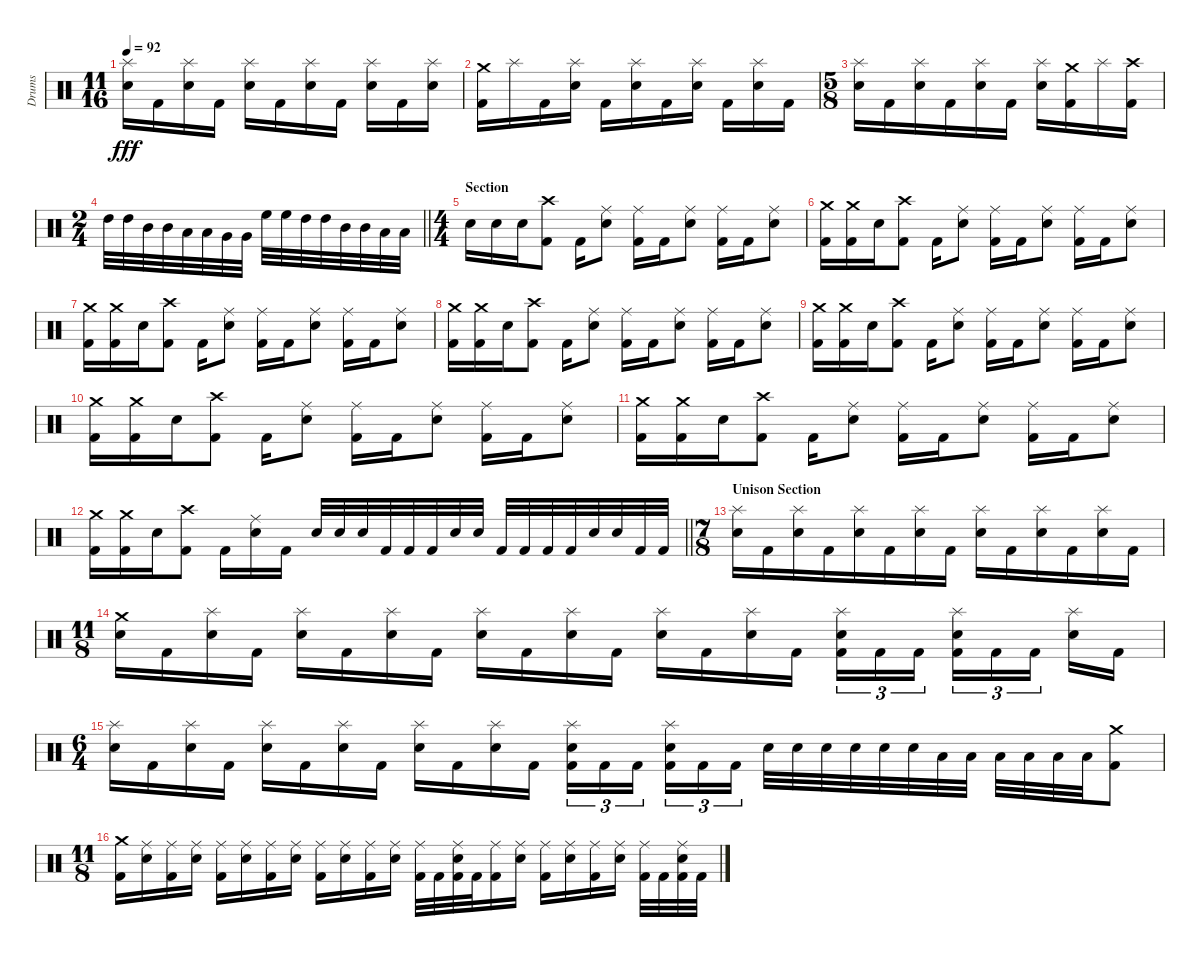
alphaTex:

\track ("Drums" "Drums") {instrument percussion}
\staff {score}
\articulation defaults
\ts (11 16)
\tempo 92
\clef neutral
\ks c
("Splash (hit)" "Snare (hit) 2").16{dy fff} "Kick (hit) 2".16 ("Splash (hit)" "Snare (hit) 2").16 "Kick (hit) 2".16 ("Splash (hit)" "Snare (hit) 2").16 "Kick (hit) 2".16 ("Splash (hit)" "Snare (hit) 2").16 "Kick (hit) 2".16 ("Splash (hit)" "Snare (hit) 2").16 "Kick (hit) 2".16 ("Splash (hit)" "Snare (hit) 2").16 |
("Crash medium (hit)" "Kick (hit) 2").16 "Splash (hit)".16 "Kick (hit) 2".16 ("Splash (hit)" "Snare (hit) 2").16 "Kick (hit) 2".16 ("Splash (hit)" "Snare (hit) 2").16 "Kick (hit) 2".16 ("Splash (hit)" "Snare (hit) 2").16 "Kick (hit) 2".16 ("Splash (hit)" "Snare (hit) 2").16 "Kick (hit) 2".16 |
\ts (5 8)
("Splash (hit)" "Snare (hit) 2").16 "Kick (hit) 2".16 ("Splash (hit)" "Snare (hit) 2").16 "Kick (hit) 2".16 ("Splash (hit)" "Snare (hit) 2").16 "Kick (hit) 2".16 ("Splash (hit)" "Snare (hit) 2").16 ("Crash medium (hit)" "Kick (hit) 2").16 "Splash (hit)".16 ("Crash high (hit)" "Kick (hit) 2").16 |
\ts (2 4)
\barLineRight lightlight "High Tom (hit)".32 "High Tom (hit)".32 "Mid Tom (hit)".32 "Mid Tom (hit)".32 "Low Tom (hit)".32 "Low Tom (hit)".32 "Very Low Tom (hit)".32 "Very Low Tom (hit)".32 "High Floor Tom (hit)".32 "High Floor Tom (hit)".32 "High Tom (hit)".32 "High Tom (hit)".32 "Mid Tom (hit)".32 "Mid Tom (hit)".32 "Low Tom (hit)".32 "Low Tom (hit)".32
|
\ts (4 4)
\section ("" "Section")
"Snare (hit) 2".16 "Snare (hit) 2".16 "Snare (hit) 2".16 ("Crash high (hit)" "Kick (hit) 2").8 "Kick (hit) 2".16 ("Ride (middle)" "Snare (hit) 2").8 ("Ride (middle)" "Kick (hit) 2").16 "Kick (hit) 2".16 ("Ride (middle)" "Snare (hit) 2").8 ("Ride (middle)" "Kick (hit) 2").16 "Kick (hit) 2".16 ("Ride (middle)" "Snare (hit) 2").8 |
("Crash medium (hit)" "Kick (hit) 2").16 ("Crash medium (hit)" "Kick (hit) 2").16 "Snare (hit) 2".16 ("Crash high (hit)" "Kick (hit) 2").8 "Kick (hit) 2".16 ("Ride (middle)" "Snare (hit) 2").8 ("Ride (middle)" "Kick (hit) 2").16 "Kick (hit) 2".16 ("Ride (middle)" "Snare (hit) 2").8 ("Ride (middle)" "Kick (hit) 2").16 "Kick (hit) 2".16 ("Ride (middle)" "Snare (hit) 2").8 |
("Crash medium (hit)" "Kick (hit) 2").16 ("Crash medium (hit)" "Kick (hit) 2").16 "Snare (hit) 2".16 ("Crash high (hit)" "Kick (hit) 2").8 "Kick (hit) 2".16 ("Ride (middle)" "Snare (hit) 2").8 ("Ride (middle)" "Kick (hit) 2").16 "Kick (hit) 2".16 ("Ride (middle)" "Snare (hit) 2").8 ("Ride (middle)" "Kick (hit) 2").16 "Kick (hit) 2".16 ("Ride (middle)" "Snare (hit) 2").8 |
("Crash medium (hit)" "Kick (hit) 2").16 ("Crash medium (hit)" "Kick (hit) 2").16 "Snare (hit) 2".16 ("Crash high (hit)" "Kick (hit) 2").8 "Kick (hit) 2".16 ("Ride (middle)" "Snare (hit) 2").8 ("Ride (middle)" "Kick (hit) 2").16 "Kick (hit) 2".16 ("Ride (middle)" "Snare (hit) 2").8 ("Ride (middle)" "Kick (hit) 2").16 "Kick (hit) 2".16 ("Ride (middle)" "Snare (hit) 2").8 |
("Crash medium (hit)" "Kick (hit) 2").16 ("Crash medium (hit)" "Kick (hit) 2").16 "Snare (hit) 2".16 ("Crash high (hit)" "Kick (hit) 2").8 "Kick (hit) 2".16 ("Ride (middle)" "Snare (hit) 2").8 ("Ride (middle)" "Kick (hit) 2").16 "Kick (hit) 2".16 ("Ride (middle)" "Snare (hit) 2").8 ("Ride (middle)" "Kick (hit) 2").16 "Kick (hit) 2".16 ("Ride (middle)" "Snare (hit) 2").8 |
("Crash medium (hit)" "Kick (hit) 2").16 ("Crash medium (hit)" "Kick (hit) 2").16 "Snare (hit) 2".16 ("Crash high (hit)" "Kick (hit) 2").8 "Kick (hit) 2".16 ("Ride (middle)" "Snare (hit) 2").8 ("Ride (middle)" "Kick (hit) 2").16 "Kick (hit) 2".16 ("Ride (middle)" "Snare (hit) 2").8 ("Ride (middle)" "Kick (hit) 2").16 "Kick (hit) 2".16 ("Ride (middle)" "Snare (hit) 2").8 |
("Crash medium (hit)" "Kick (hit) 2").16 ("Crash medium (hit)" "Kick (hit) 2").16 "Snare (hit) 2".16 ("Crash high (hit)" "Kick (hit) 2").8 "Kick (hit) 2".16 ("Ride (middle)" "Snare (hit) 2").8 ("Ride (middle)" "Kick (hit) 2").16 "Kick (hit) 2".16 ("Ride (middle)" "Snare (hit) 2").8 ("Ride (middle)" "Kick (hit) 2").16 "Kick (hit) 2".16 ("Ride (middle)" "Snare (hit) 2").8 |
\barLineRight lightlight
("Crash medium (hit)" "Kick (hit) 2").16 ("Crash medium (hit)" "Kick (hit) 2").16 "Snare (hit) 2".16 ("Crash high (hit)" "Kick (hit) 2").8 "Kick (hit) 2".16 ("Ride (middle)" "Snare (hit) 2").16 "Kick (hit) 2".16 "Snare (hit) 2".32 "Snare (hit) 2".32 "Snare (hit) 2".32 "Kick (hit) 2".32 "Kick (hit) 2".32 "Kick (hit) 2".32 "Snare (hit) 2".32 "Snare (hit) 2".32 "Kick (hit) 2".32 "Kick (hit) 2".32 "Kick (hit) 2".32 "Kick (hit) 2".32 "Snare (hit) 2".32 "Snare (hit) 2".32 "Kick (hit) 2".32 "Kick (hit) 2".32 |
\ts (7 8)
\section ("" "Unison Section")
("Splash (hit)" "Snare (hit) 2").16 "Kick (hit) 2".16 ("Splash (hit)" "Snare (hit) 2").16 "Kick (hit) 2".16 ("Splash (hit)" "Snare (hit) 2").16 "Kick (hit) 2".16 ("Splash (hit)" "Snare (hit) 2").16 "Kick (hit) 2".16 ("Splash (hit)" "Snare (hit) 2").16 "Kick (hit) 2".16 ("Splash (hit)" "Snare (hit) 2").16 "Kick (hit) 2".16 ("Splash (hit)" "Snare (hit) 2").16 "Kick (hit) 2".16 |
\ts (11 8)
("Crash medium (hit)" "Snare (hit) 2").16 "Kick (hit) 2".16 ("Splash (hit)" "Snare (hit) 2").16 "Kick (hit) 2".16 ("Splash (hit)" "Snare (hit) 2").16 "Kick (hit) 2".16 ("Splash (hit)" "Snare (hit) 2").16 "Kick (hit) 2".16 ("Splash (hit)" "Snare (hit) 2").16 "Kick (hit) 2".16 ("Splash (hit)" "Snare (hit) 2").16 "Kick (hit) 2".16 ("Splash (hit)" "Snare (hit) 2").16 "Kick (hit) 2".16 ("Splash (hit)" "Snare (hit) 2").16 "Kick (hit) 2".16 ("Splash (hit)" "Snare (hit) 2" "Kick (hit) 2").16{tu (3 2)} "Kick (hit) 2".16{tu (3 2)} "Kick (hit) 2".16{tu (3 2)} ("Splash (hit)" "Snare (hit) 2" "Kick (hit) 2").16{tu (3 2)} "Kick (hit) 2".16{tu (3 2)} "Kick (hit) 2".16{tu (3 2)} ("Splash (hit)" "Snare (hit) 2").16 "Kick (hit) 2".16 |
\ts (6 4)
("Splash (hit)" "Snare (hit) 2").16 "Kick (hit) 2".16 ("Splash (hit)" "Snare (hit) 2").16 "Kick (hit) 2".16 ("Splash (hit)" "Snare (hit) 2").16 "Kick (hit) 2".16 ("Splash (hit)" "Snare (hit) 2").16 "Kick (hit) 2".16 ("Splash (hit)" "Snare (hit) 2").16 "Kick (hit) 2".16 ("Splash (hit)" "Snare (hit) 2").16 "Kick (hit) 2".16 ("Splash (hit)" "Snare (hit) 2" "Kick (hit) 2").16{tu (3 2)} "Kick (hit) 2".16{tu (3 2)} "Kick (hit) 2".16{tu (3 2) beam splitsecondary} ("Splash (hit)" "Snare (hit) 2" "Kick (hit) 2").16{tu (3 2)} "Kick (hit) 2".16{tu (3 2)} "Kick (hit) 2".16{tu (3 2) beam splitsecondary} "Snare (hit) 2".32 "Snare (hit) 2".32 "Snare (hit) 2".32 "Snare (hit) 2".32 "Snare (hit) 2".32 "Snare (hit) 2".32 "Low Tom (hit)".32 "Low Tom (hit)".32 "Low Tom (hit)".32 "Low Tom (hit)".32 "Low Tom (hit)".32 "Low Tom (hit)".32 ("Crash medium (hit)" "Kick (hit) 2").8 |
\ts (11 8)
("Crash medium (hit)" "Kick (hit) 2").16 ("Ride (middle)" "Snare (hit) 2").16 ("Ride (middle)" "Kick (hit) 2").16 ("Ride (middle)" "Snare (hit) 2").16 ("Ride (middle)" "Kick (hit) 2").16 ("Ride (middle)" "Snare (hit) 2").16 ("Ride (middle)" "Kick (hit) 2").16 ("Ride (middle)" "Snare (hit) 2").16 ("Ride (middle)" "Kick (hit) 2").16 ("Ride (middle)" "Snare (hit) 2").16 ("Ride (middle)" "Kick (hit) 2").16 ("Ride (middle)" "Snare (hit) 2").16 ("Ride (middle)" "Kick (hit) 2").32 "Kick (hit) 2".32 ("Ride (middle)" "Snare (hit) 2" "Kick (hit) 2").32 "Kick (hit) 2".32 ("Ride (middle)" "Kick (hit) 2").16 ("Ride (middle)" "Snare (hit) 2").16 ("Ride (middle)" "Kick (hit) 2").16 ("Ride (middle)" "Snare (hit) 2").16 ("Ride (middle)" "Kick (hit) 2").16 ("Ride (middle)" "Snare (hit) 2").16 ("Ride (middle)" "Kick (hit) 2").32 "Kick (hit) 2".32 ("Ride (middle)" "Snare (hit) 2" "Kick (hit) 2").32 "Kick (hit) 2".32
